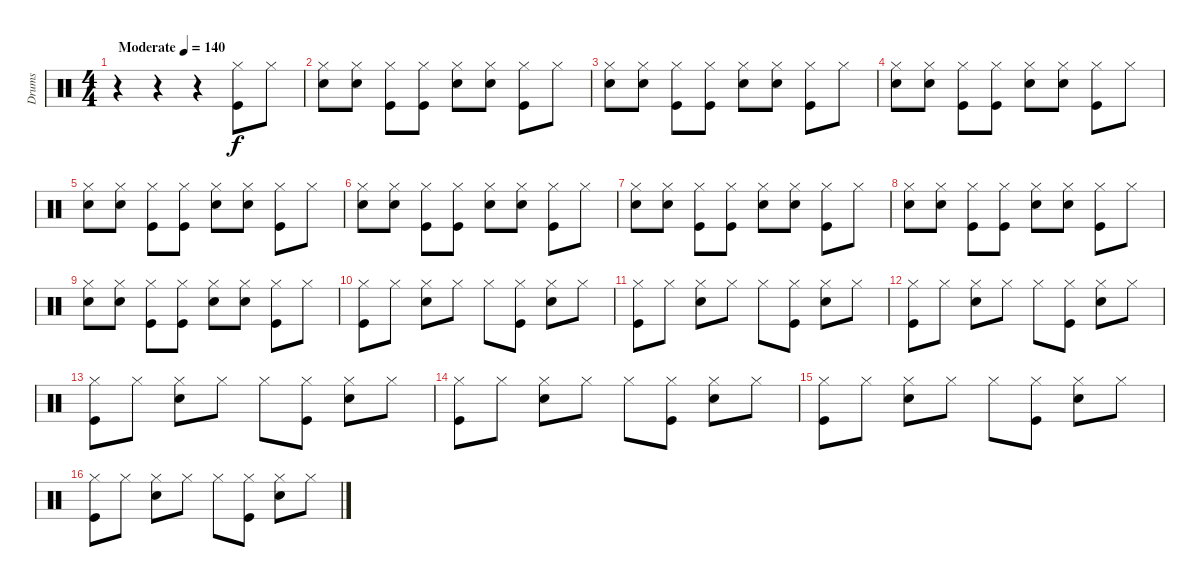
\track ("Drums" "Drums") {instrument percussion}
\staff {score}
\articulation defaults
\ts (4 4)
\tempo (140 "Moderate")
\clef neutral
\ks c
r.4{dy f} r.4 r.4 ("Hi-Hat (closed)" "Kick (hit)").8 "Hi-Hat (closed)".8 |
("Hi-Hat (closed)" "Electric Snare (hit)").8 ("Hi-Hat (closed)" "Electric Snare (hit)").8 ("Hi-Hat (closed)" "Kick (hit)").8 ("Hi-Hat (closed)" "Kick (hit)").8 ("Hi-Hat (closed)" "Electric Snare (hit)").8 ("Hi-Hat (closed)" "Electric Snare (hit)").8 ("Hi-Hat (closed)" "Kick (hit)").8 "Hi-Hat (closed)".8 |
("Hi-Hat (closed)" "Electric Snare (hit)").8 ("Hi-Hat (closed)" "Electric Snare (hit)").8 ("Hi-Hat (closed)" "Kick (hit)").8 ("Hi-Hat (closed)" "Kick (hit)").8 ("Hi-Hat (closed)" "Electric Snare (hit)").8 ("Hi-Hat (closed)" "Electric Snare (hit)").8 ("Hi-Hat (closed)" "Kick (hit)").8 "Hi-Hat (closed)".8 |
("Hi-Hat (closed)" "Electric Snare (hit)").8 ("Hi-Hat (closed)" "Electric Snare (hit)").8 ("Hi-Hat (closed)" "Kick (hit)").8 ("Hi-Hat (closed)" "Kick (hit)").8 ("Hi-Hat (closed)" "Electric Snare (hit)").8 ("Hi-Hat (closed)" "Electric Snare (hit)").8 ("Hi-Hat (closed)" "Kick (hit)").8 "Hi-Hat (closed)".8 |
("Hi-Hat (closed)" "Electric Snare (hit)").8 ("Hi-Hat (closed)" "Electric Snare (hit)").8 ("Hi-Hat (closed)" "Kick (hit)").8 ("Hi-Hat (closed)" "Kick (hit)").8 ("Hi-Hat (closed)" "Electric Snare (hit)").8 ("Hi-Hat (closed)" "Electric Snare (hit)").8 ("Hi-Hat (closed)" "Kick (hit)").8 "Hi-Hat (closed)".8 |
("Hi-Hat (closed)" "Electric Snare (hit)").8 ("Hi-Hat (closed)" "Electric Snare (hit)").8 ("Hi-Hat (closed)" "Kick (hit)").8 ("Hi-Hat (closed)" "Kick (hit)").8 ("Hi-Hat (closed)" "Electric Snare (hit)").8 ("Hi-Hat (closed)" "Electric Snare (hit)").8 ("Hi-Hat (closed)" "Kick (hit)").8 "Hi-Hat (closed)".8 |
("Hi-Hat (closed)" "Electric Snare (hit)").8 ("Hi-Hat (closed)" "Electric Snare (hit)").8 ("Hi-Hat (closed)" "Kick (hit)").8 ("Hi-Hat (closed)" "Kick (hit)").8 ("Hi-Hat (closed)" "Electric Snare (hit)").8 ("Hi-Hat (closed)" "Electric Snare (hit)").8 ("Hi-Hat (closed)" "Kick (hit)").8 "Hi-Hat (closed)".8 |
("Hi-Hat (closed)" "Electric Snare (hit)").8 ("Hi-Hat (closed)" "Electric Snare (hit)").8 ("Hi-Hat (closed)" "Kick (hit)").8 ("Hi-Hat (closed)" "Kick (hit)").8 ("Hi-Hat (closed)" "Electric Snare (hit)").8 ("Hi-Hat (closed)" "Electric Snare (hit)").8 ("Hi-Hat (closed)" "Kick (hit)").8 "Hi-Hat (closed)".8 |
("Hi-Hat (closed)" "Electric Snare (hit)").8 ("Hi-Hat (closed)" "Electric Snare (hit)").8 ("Hi-Hat (closed)" "Kick (hit)").8 ("Hi-Hat (closed)" "Kick (hit)").8 ("Hi-Hat (closed)" "Electric Snare (hit)").8 ("Hi-Hat (closed)" "Electric Snare (hit)").8 ("Hi-Hat (closed)" "Kick (hit)").8 "Hi-Hat (closed)".8 |
("Hi-Hat (closed)" "Kick (hit)").8 "Hi-Hat (closed)".8 ("Hi-Hat (closed)" "Electric Snare (hit)").8 "Hi-Hat (closed)".8 "Hi-Hat (closed)".8 ("Hi-Hat (closed)" "Kick (hit)").8 ("Hi-Hat (closed)" "Electric Snare (hit)").8 "Hi-Hat (closed)".8 |
("Hi-Hat (closed)" "Kick (hit)").8 "Hi-Hat (closed)".8 ("Hi-Hat (closed)" "Electric Snare (hit)").8 "Hi-Hat (closed)".8 "Hi-Hat (closed)".8 ("Hi-Hat (closed)" "Kick (hit)").8 ("Hi-Hat (closed)" "Electric Snare (hit)").8 "Hi-Hat (closed)".8 |
("Hi-Hat (closed)" "Kick (hit)").8 "Hi-Hat (closed)".8 ("Hi-Hat (closed)" "Electric Snare (hit)").8 "Hi-Hat (closed)".8 "Hi-Hat (closed)".8 ("Hi-Hat (closed)" "Kick (hit)").8 ("Hi-Hat (closed)" "Electric Snare (hit)").8 "Hi-Hat (closed)".8 |
("Hi-Hat (closed)" "Kick (hit)").8 "Hi-Hat (closed)".8 ("Hi-Hat (closed)" "Electric Snare (hit)").8 "Hi-Hat (closed)".8 "Hi-Hat (closed)".8 ("Hi-Hat (closed)" "Kick (hit)").8 ("Hi-Hat (closed)" "Electric Snare (hit)").8 "Hi-Hat (closed)".8 |
("Hi-Hat (closed)" "Kick (hit)").8 "Hi-Hat (closed)".8 ("Hi-Hat (closed)" "Electric Snare (hit)").8 "Hi-Hat (closed)".8 "Hi-Hat (closed)".8 ("Hi-Hat (closed)" "Kick (hit)").8 ("Hi-Hat (closed)" "Electric Snare (hit)").8 "Hi-Hat (closed)".8 |
("Hi-Hat (closed)" "Kick (hit)").8 "Hi-Hat (closed)".8 ("Hi-Hat (closed)" "Electric Snare (hit)").8 "Hi-Hat (closed)".8 "Hi-Hat (closed)".8 ("Hi-Hat (closed)" "Kick (hit)").8 ("Hi-Hat (closed)" "Electric Snare (hit)").8 "Hi-Hat (closed)".8 |
("Hi-Hat (closed)" "Kick (hit)").8 "Hi-Hat (closed)".8 ("Hi-Hat (closed)" "Electric Snare (hit)").8 "Hi-Hat (closed)".8 "Hi-Hat (closed)".8 ("Hi-Hat (closed)" "Kick (hit)").8 ("Hi-Hat (closed)" "Electric Snare (hit)").8 "Hi-Hat (closed)".8
